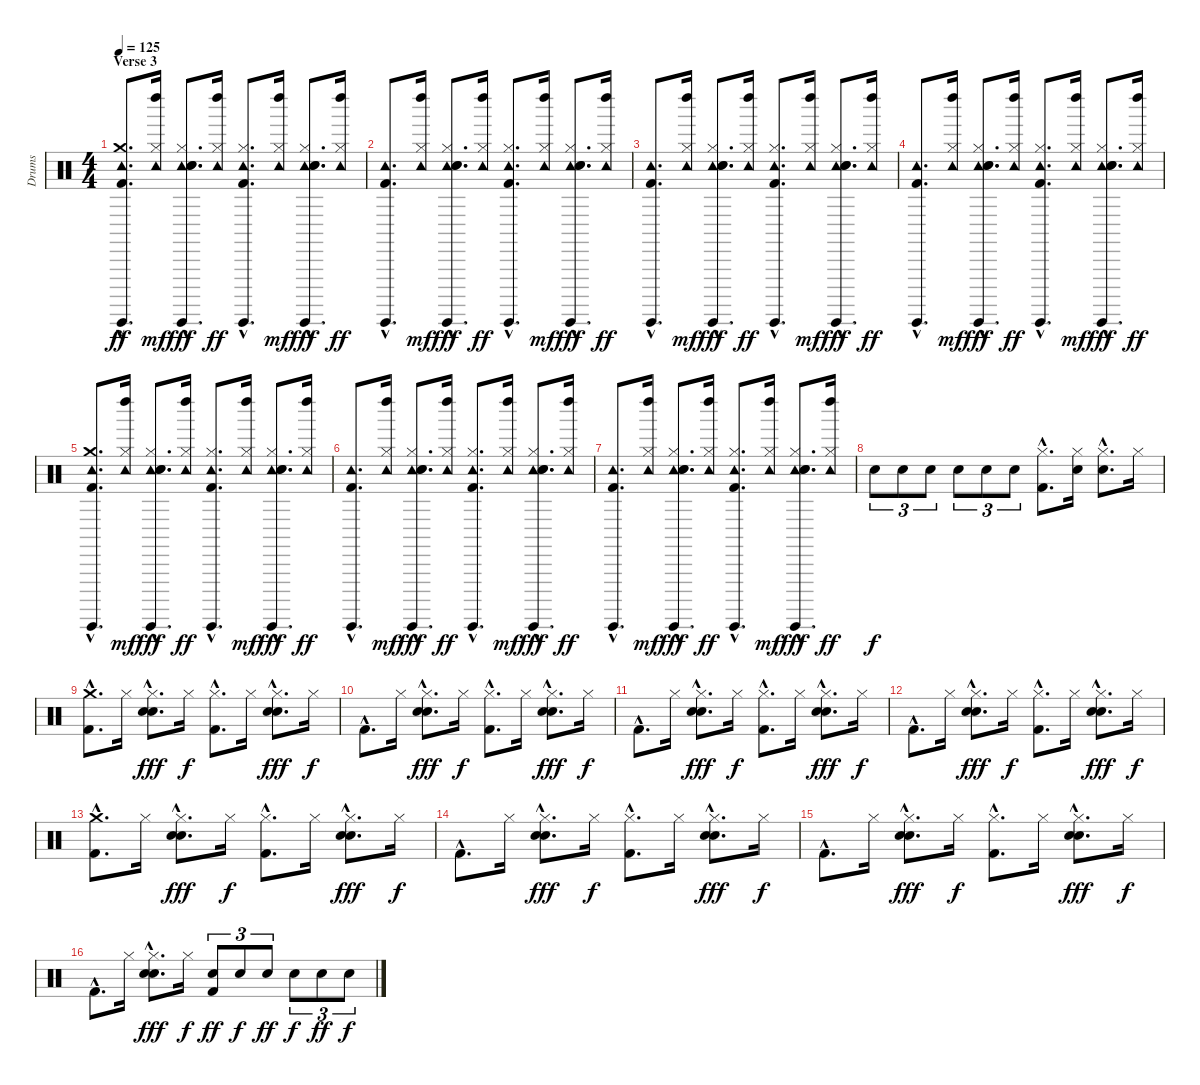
\track ("Drums" "Drums") {instrument percussion}
\staff {score}
\articulation defaults
\ts (4 4)
\section ("" "Verse 3")
\tempo 125
\clef neutral
\ks c
("Guiro (hit)"{hac} "Tambourine (hit)"{hac} "Crash medium (hit)"{hac} "Kick (hit) 2"{hac}).8{d dy ff} ("Left Maraca (hit)" "Tambourine (hit)" "Hi-Hat (closed)").16{dy mf} ("Guiro (hit)"{hac} "Tambourine (hit)"{hac} "Hi-Hat (closed)"{hac} "Hand Clap (hit)"{hac} "Snare (hit) 2"{hac}).8{d dy fff} ("Left Maraca (hit)" "Tambourine (hit)" "Hi-Hat (closed)").16{dy ff} ("Guiro (hit)"{hac} "Tambourine (hit)"{hac} "Hi-Hat (closed)"{hac} "Kick (hit) 2"{hac}).8{d} ("Left Maraca (hit)" "Tambourine (hit)" "Hi-Hat (closed)").16{dy mf} ("Guiro (hit)"{hac} "Tambourine (hit)"{hac} "Hi-Hat (closed)"{hac} "Hand Clap (hit)"{hac} "Snare (hit) 2"{hac}).8{d dy fff} ("Left Maraca (hit)" "Tambourine (hit)" "Hi-Hat (closed)").16{dy ff} |
("Guiro (hit)"{hac} "Tambourine (hit)"{hac} "Kick (hit) 2"{hac}).8{d} ("Left Maraca (hit)" "Tambourine (hit)" "Hi-Hat (closed)").16{dy mf} ("Guiro (hit)"{hac} "Tambourine (hit)"{hac} "Hi-Hat (closed)"{hac} "Hand Clap (hit)"{hac} "Snare (hit) 2"{hac}).8{d dy fff} ("Left Maraca (hit)" "Tambourine (hit)" "Hi-Hat (closed)").16{dy ff} ("Guiro (hit)"{hac} "Tambourine (hit)"{hac} "Hi-Hat (closed)"{hac} "Kick (hit) 2"{hac}).8{d} ("Left Maraca (hit)" "Tambourine (hit)" "Hi-Hat (closed)").16{dy mf} ("Guiro (hit)"{hac} "Tambourine (hit)"{hac} "Hi-Hat (closed)"{hac} "Hand Clap (hit)"{hac} "Snare (hit) 2"{hac}).8{d dy fff} ("Left Maraca (hit)" "Tambourine (hit)" "Hi-Hat (closed)").16{dy ff} |
("Guiro (hit)"{hac} "Tambourine (hit)"{hac} "Kick (hit) 2"{hac}).8{d} ("Left Maraca (hit)" "Tambourine (hit)" "Hi-Hat (closed)").16{dy mf} ("Guiro (hit)"{hac} "Tambourine (hit)"{hac} "Hi-Hat (closed)"{hac} "Hand Clap (hit)"{hac} "Snare (hit) 2"{hac}).8{d dy fff} ("Left Maraca (hit)" "Tambourine (hit)" "Hi-Hat (closed)").16{dy ff} ("Guiro (hit)"{hac} "Tambourine (hit)"{hac} "Hi-Hat (closed)"{hac} "Kick (hit) 2"{hac}).8{d} ("Left Maraca (hit)" "Tambourine (hit)" "Hi-Hat (closed)").16{dy mf} ("Guiro (hit)"{hac} "Tambourine (hit)"{hac} "Hi-Hat (closed)"{hac} "Hand Clap (hit)"{hac} "Snare (hit) 2"{hac}).8{d dy fff} ("Left Maraca (hit)" "Tambourine (hit)" "Hi-Hat (closed)").16{dy ff} |
("Guiro (hit)"{hac} "Tambourine (hit)"{hac} "Kick (hit) 2"{hac}).8{d} ("Left Maraca (hit)" "Tambourine (hit)" "Hi-Hat (closed)").16{dy mf} ("Guiro (hit)"{hac} "Tambourine (hit)"{hac} "Hi-Hat (closed)"{hac} "Hand Clap (hit)"{hac} "Snare (hit) 2"{hac}).8{d dy fff} ("Left Maraca (hit)" "Tambourine (hit)" "Hi-Hat (closed)").16{dy ff} ("Guiro (hit)"{hac} "Tambourine (hit)"{hac} "Hi-Hat (closed)"{hac} "Kick (hit) 2"{hac}).8{d} ("Left Maraca (hit)" "Tambourine (hit)" "Hi-Hat (closed)").16{dy mf} ("Guiro (hit)"{hac} "Tambourine (hit)"{hac} "Hi-Hat (closed)"{hac} "Hand Clap (hit)"{hac} "Snare (hit) 2"{hac}).8{d dy fff} ("Left Maraca (hit)" "Tambourine (hit)" "Hi-Hat (closed)").16{dy ff} |
("Guiro (hit)"{hac} "Tambourine (hit)"{hac} "Crash medium (hit)"{hac} "Kick (hit) 2"{hac}).8{d} ("Left Maraca (hit)" "Tambourine (hit)" "Hi-Hat (closed)").16{dy mf} ("Guiro (hit)"{hac} "Tambourine (hit)"{hac} "Hi-Hat (closed)"{hac} "Hand Clap (hit)"{hac} "Snare (hit) 2"{hac}).8{d dy fff} ("Left Maraca (hit)" "Tambourine (hit)" "Hi-Hat (closed)").16{dy ff} ("Guiro (hit)"{hac} "Tambourine (hit)"{hac} "Hi-Hat (closed)"{hac} "Kick (hit) 2"{hac}).8{d} ("Left Maraca (hit)" "Tambourine (hit)" "Hi-Hat (closed)").16{dy mf} ("Guiro (hit)"{hac} "Tambourine (hit)"{hac} "Hi-Hat (closed)"{hac} "Hand Clap (hit)"{hac} "Snare (hit) 2"{hac}).8{d dy fff} ("Left Maraca (hit)" "Tambourine (hit)" "Hi-Hat (closed)").16{dy ff} |
("Guiro (hit)"{hac} "Tambourine (hit)"{hac} "Kick (hit) 2"{hac}).8{d} ("Left Maraca (hit)" "Tambourine (hit)" "Hi-Hat (closed)").16{dy mf} ("Guiro (hit)"{hac} "Tambourine (hit)"{hac} "Hi-Hat (closed)"{hac} "Hand Clap (hit)"{hac} "Snare (hit) 2"{hac}).8{d dy fff} ("Left Maraca (hit)" "Tambourine (hit)" "Hi-Hat (closed)").16{dy ff} ("Guiro (hit)"{hac} "Tambourine (hit)"{hac} "Hi-Hat (closed)"{hac} "Kick (hit) 2"{hac}).8{d} ("Left Maraca (hit)" "Tambourine (hit)" "Hi-Hat (closed)").16{dy mf} ("Guiro (hit)"{hac} "Tambourine (hit)"{hac} "Hi-Hat (closed)"{hac} "Hand Clap (hit)"{hac} "Snare (hit) 2"{hac}).8{d dy fff} ("Left Maraca (hit)" "Tambourine (hit)" "Hi-Hat (closed)").16{dy ff} |
("Guiro (hit)"{hac} "Tambourine (hit)"{hac} "Kick (hit) 2"{hac}).8{d} ("Left Maraca (hit)" "Tambourine (hit)" "Hi-Hat (closed)").16{dy mf} ("Guiro (hit)"{hac} "Tambourine (hit)"{hac} "Hi-Hat (closed)"{hac} "Hand Clap (hit)"{hac} "Snare (hit) 2"{hac}).8{d dy fff} ("Left Maraca (hit)" "Tambourine (hit)" "Hi-Hat (closed)").16{dy ff} ("Guiro (hit)"{hac} "Tambourine (hit)"{hac} "Hi-Hat (closed)"{hac} "Kick (hit) 2"{hac}).8{d} ("Left Maraca (hit)" "Tambourine (hit)" "Hi-Hat (closed)").16{dy mf} ("Guiro (hit)"{hac} "Tambourine (hit)"{hac} "Hi-Hat (closed)"{hac} "Hand Clap (hit)"{hac} "Snare (hit) 2"{hac}).8{d dy fff} ("Left Maraca (hit)" "Tambourine (hit)" "Hi-Hat (closed)").16{dy ff} |
"Snare (hit) 2".8{tu (3 2) dy f} "Snare (hit) 2".8{tu (3 2)} "Snare (hit) 2".8{tu (3 2)} "Snare (hit) 2".8{tu (3 2)} "Snare (hit) 2".8{tu (3 2)} "Snare (hit) 2".8{tu (3 2)} ("Hi-Hat (closed)"{hac} "Kick (hit) 2"{hac}).8{d} ("Hi-Hat (closed)" "Snare (hit) 2").16 ("Hi-Hat (closed)"{hac} "Snare (hit) 2"{hac}).8{d} "Hi-Hat (closed)".16 |
("Crash medium (hit)"{hac} "Kick (hit) 2"{hac}).8{d} "Hi-Hat (closed)".16 ("Hand Clap (hit)"{hac} "Hi-Hat (closed)"{hac} "Snare (hit) 2"{hac}).8{d dy fff} "Hi-Hat (closed)".16{dy f} ("Hi-Hat (closed)"{hac} "Kick (hit) 2"{hac}).8{d} "Hi-Hat (closed)".16 ("Hand Clap (hit)"{hac} "Hi-Hat (closed)"{hac} "Snare (hit) 2"{hac}).8{d dy fff} "Hi-Hat (closed)".16{dy f} |
"Kick (hit) 2"{hac}.8{d} "Hi-Hat (closed)".16 ("Hand Clap (hit)"{hac} "Hi-Hat (closed)"{hac} "Snare (hit) 2"{hac}).8{d dy fff} "Hi-Hat (closed)".16{dy f} ("Hi-Hat (closed)"{hac} "Kick (hit) 2"{hac}).8{d} "Hi-Hat (closed)".16 ("Hand Clap (hit)"{hac} "Hi-Hat (closed)"{hac} "Snare (hit) 2"{hac}).8{d dy fff} "Hi-Hat (closed)".16{dy f} |
"Kick (hit) 2"{hac}.8{d} "Hi-Hat (closed)".16 ("Hand Clap (hit)"{hac} "Hi-Hat (closed)"{hac} "Snare (hit) 2"{hac}).8{d dy fff} "Hi-Hat (closed)".16{dy f} ("Hi-Hat (closed)"{hac} "Kick (hit) 2"{hac}).8{d} "Hi-Hat (closed)".16 ("Hand Clap (hit)"{hac} "Hi-Hat (closed)"{hac} "Snare (hit) 2"{hac}).8{d dy fff} "Hi-Hat (closed)".16{dy f} |
"Kick (hit) 2"{hac}.8{d} "Hi-Hat (closed)".16 ("Hand Clap (hit)"{hac} "Hi-Hat (closed)"{hac} "Snare (hit) 2"{hac}).8{d dy fff} "Hi-Hat (closed)".16{dy f} ("Hi-Hat (closed)"{hac} "Kick (hit) 2"{hac}).8{d} "Hi-Hat (closed)".16 ("Hand Clap (hit)"{hac} "Hi-Hat (closed)"{hac} "Snare (hit) 2"{hac}).8{d dy fff} "Hi-Hat (closed)".16{dy f} |
("Crash medium (hit)"{hac} "Kick (hit) 2"{hac}).8{d} "Hi-Hat (closed)".16 ("Hand Clap (hit)"{hac} "Hi-Hat (closed)"{hac} "Snare (hit) 2"{hac}).8{d dy fff} "Hi-Hat (closed)".16{dy f} ("Hi-Hat (closed)"{hac} "Kick (hit) 2"{hac}).8{d} "Hi-Hat (closed)".16 ("Hand Clap (hit)"{hac} "Hi-Hat (closed)"{hac} "Snare (hit) 2"{hac}).8{d dy fff} "Hi-Hat (closed)".16{dy f} |
"Kick (hit) 2"{hac}.8{d} "Hi-Hat (closed)".16 ("Hand Clap (hit)"{hac} "Hi-Hat (closed)"{hac} "Snare (hit) 2"{hac}).8{d dy fff} "Hi-Hat (closed)".16{dy f} ("Hi-Hat (closed)"{hac} "Kick (hit) 2"{hac}).8{d} "Hi-Hat (closed)".16 ("Hand Clap (hit)"{hac} "Hi-Hat (closed)"{hac} "Snare (hit) 2"{hac}).8{d dy fff} "Hi-Hat (closed)".16{dy f} |
"Kick (hit) 2"{hac}.8{d} "Hi-Hat (closed)".16 ("Hand Clap (hit)"{hac} "Hi-Hat (closed)"{hac} "Snare (hit) 2"{hac}).8{d dy fff} "Hi-Hat (closed)".16{dy f} ("Hi-Hat (closed)"{hac} "Kick (hit) 2"{hac}).8{d} "Hi-Hat (closed)".16 ("Hand Clap (hit)"{hac} "Hi-Hat (closed)"{hac} "Snare (hit) 2"{hac}).8{d dy fff} "Hi-Hat (closed)".16{dy f} |
"Kick (hit) 2"{hac}.8{d} "Hi-Hat (closed)".16 ("Hand Clap (hit)"{hac} "Hi-Hat (closed)"{hac} "Snare (hit) 2"{hac}).8{d dy fff} "Hi-Hat (closed)".16{dy f} ("Snare (hit) 2" "Kick (hit) 2").8{tu (3 2) dy ff} "Snare (hit) 2".8{tu (3 2) dy f} "Snare (hit) 2".8{tu (3 2) dy ff} "Snare (hit) 2".8{tu (3 2) dy f} "Snare (hit) 2".8{tu (3 2) dy ff} "Snare (hit) 2".8{tu (3 2) dy f}
